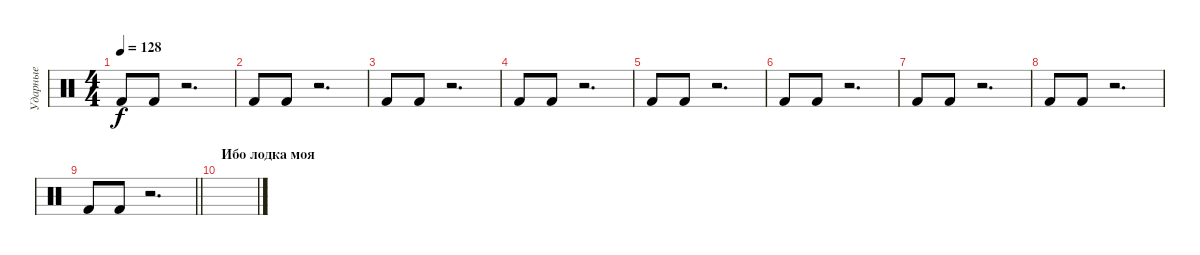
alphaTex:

\track ("Ударные" "Ударные") {instrument percussion}
\staff {score}
\articulation defaults
\ts (4 4)
\tempo 128
\clef neutral
\ks c "Kick (hit) 2".8{dy f} "Kick (hit) 2".8
r.2{d} |
"Kick (hit) 2".8 "Kick (hit) 2".8 r.2{d} |
"Kick (hit) 2".8 "Kick (hit) 2".8 r.2{d} |
"Kick (hit) 2".8 "Kick (hit) 2".8 r.2{d} |
"Kick (hit) 2".8 "Kick (hit) 2".8 r.2{d} |
"Kick (hit) 2".8 "Kick (hit) 2".8 r.2{d} |
"Kick (hit) 2".8 "Kick (hit) 2".8 r.2{d} |
"Kick (hit) 2".8 "Kick (hit) 2".8 r.2{d} |
\barLineRight lightlight "Kick (hit) 2".8 "Kick (hit) 2".8
r.2{d} |
\section ("" "Ибо лодка моя")
